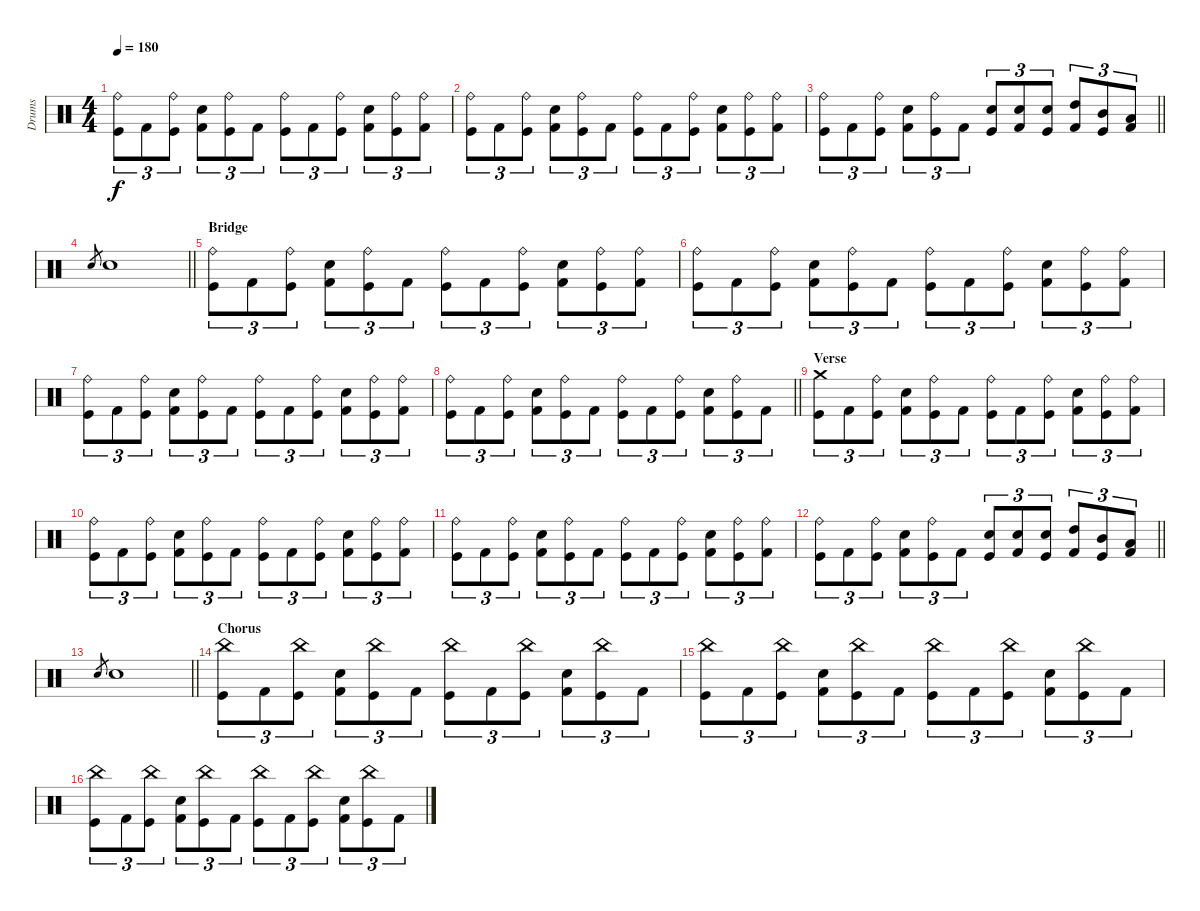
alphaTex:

\track ("Drums" "Drums") {instrument percussion}
\staff {score}
\articulation defaults
\ts (4 4)
\tempo 180
\clef neutral
\ks c
("Ride (bell)" "Kick (hit)").8{tu (3 2) dy f} "Kick (hit) 2".8{tu (3 2)} ("Ride (bell)" "Kick (hit)").8{tu (3 2)} ("Electric Snare (hit)" "Kick (hit) 2").8{tu (3 2)} ("Ride (bell)" "Kick (hit)").8{tu (3 2)} "Kick (hit) 2".8{tu (3 2)} ("Ride (bell)" "Kick (hit)").8{tu (3 2)} "Kick (hit) 2".8{tu (3 2)} ("Ride (bell)" "Kick (hit)").8{tu (3 2)} ("Electric Snare (hit)" "Kick (hit) 2").8{tu (3 2)} ("Ride (bell)" "Kick (hit)").8{tu (3 2)} ("Ride (bell)" "Kick (hit) 2").8{tu (3 2)} |
("Ride (bell)" "Kick (hit)").8{tu (3 2)} "Kick (hit) 2".8{tu (3 2)} ("Ride (bell)" "Kick (hit)").8{tu (3 2)} ("Electric Snare (hit)" "Kick (hit) 2").8{tu (3 2)} ("Ride (bell)" "Kick (hit)").8{tu (3 2)} "Kick (hit) 2".8{tu (3 2)} ("Ride (bell)" "Kick (hit)").8{tu (3 2)} "Kick (hit) 2".8{tu (3 2)} ("Ride (bell)" "Kick (hit)").8{tu (3 2)} ("Electric Snare (hit)" "Kick (hit) 2").8{tu (3 2)} ("Ride (bell)" "Kick (hit)").8{tu (3 2)} ("Ride (bell)" "Kick (hit) 2").8{tu (3 2)} |
\barLineRight lightlight
("Ride (bell)" "Kick (hit)").8{tu (3 2)} "Kick (hit) 2".8{tu (3 2)} ("Ride (bell)" "Kick (hit)").8{tu (3 2)} ("Electric Snare (hit)" "Kick (hit) 2").8{tu (3 2)} ("Ride (bell)" "Kick (hit)").8{tu (3 2)} "Kick (hit) 2".8{tu (3 2)} ("Electric Snare (hit)" "Kick (hit)").8{tu (3 2)} ("Electric Snare (hit)" "Kick (hit) 2").8{tu (3 2)} ("Electric Snare (hit)" "Kick (hit)").8{tu (3 2)} ("High Tom (hit)" "Kick (hit) 2").8{tu (3 2)} ("Mid Tom (hit)" "Kick (hit)").8{tu (3 2)} ("Low Tom (hit)" "Kick (hit) 2").8{tu (3 2)} |
\barLineRight lightlight "Electric Snare (hit)".8{gr} "Electric Snare (hit)".1
|
\section ("" "Bridge")
("Ride (bell)" "Kick (hit)").8{tu (3 2)} "Kick (hit) 2".8{tu (3 2)} ("Ride (bell)" "Kick (hit)").8{tu (3 2)} ("Electric Snare (hit)" "Kick (hit) 2").8{tu (3 2)} ("Ride (bell)" "Kick (hit)").8{tu (3 2)} "Kick (hit) 2".8{tu (3 2)} ("Ride (bell)" "Kick (hit)").8{tu (3 2)} "Kick (hit) 2".8{tu (3 2)} ("Ride (bell)" "Kick (hit)").8{tu (3 2)} ("Electric Snare (hit)" "Kick (hit) 2").8{tu (3 2)} ("Ride (bell)" "Kick (hit)").8{tu (3 2)} ("Ride (bell)" "Kick (hit) 2").8{tu (3 2)} |
("Ride (bell)" "Kick (hit)").8{tu (3 2)} "Kick (hit) 2".8{tu (3 2)} ("Ride (bell)" "Kick (hit)").8{tu (3 2)} ("Electric Snare (hit)" "Kick (hit) 2").8{tu (3 2)} ("Ride (bell)" "Kick (hit)").8{tu (3 2)} "Kick (hit) 2".8{tu (3 2)} ("Ride (bell)" "Kick (hit)").8{tu (3 2)} "Kick (hit) 2".8{tu (3 2)} ("Ride (bell)" "Kick (hit)").8{tu (3 2)} ("Electric Snare (hit)" "Kick (hit) 2").8{tu (3 2)} ("Ride (bell)" "Kick (hit)").8{tu (3 2)} ("Ride (bell)" "Kick (hit) 2").8{tu (3 2)} |
("Ride (bell)" "Kick (hit)").8{tu (3 2)} "Kick (hit) 2".8{tu (3 2)} ("Ride (bell)" "Kick (hit)").8{tu (3 2)} ("Electric Snare (hit)" "Kick (hit) 2").8{tu (3 2)} ("Ride (bell)" "Kick (hit)").8{tu (3 2)} "Kick (hit) 2".8{tu (3 2)} ("Ride (bell)" "Kick (hit)").8{tu (3 2)} "Kick (hit) 2".8{tu (3 2)} ("Ride (bell)" "Kick (hit)").8{tu (3 2)} ("Electric Snare (hit)" "Kick (hit) 2").8{tu (3 2)} ("Ride (bell)" "Kick (hit)").8{tu (3 2)} ("Ride (bell)" "Kick (hit) 2").8{tu (3 2)} |
\barLineRight lightlight
("Ride (bell)" "Kick (hit)").8{tu (3 2)} "Kick (hit) 2".8{tu (3 2)} ("Ride (bell)" "Kick (hit)").8{tu (3 2)} ("Electric Snare (hit)" "Kick (hit) 2").8{tu (3 2)} ("Ride (bell)" "Kick (hit)").8{tu (3 2)} "Kick (hit) 2".8{tu (3 2)} ("Ride (bell)" "Kick (hit)").8{tu (3 2)} "Kick (hit) 2".8{tu (3 2)} ("Ride (bell)" "Kick (hit)").8{tu (3 2)} ("Electric Snare (hit)" "Kick (hit) 2").8{tu (3 2)} ("Ride (bell)" "Kick (hit)").8{tu (3 2)} "Kick (hit) 2".8{tu (3 2)} |
\section ("" "Verse")
("Crash medium (hit)" "Kick (hit)").8{tu (3 2)} "Kick (hit) 2".8{tu (3 2)} ("Ride (bell)" "Kick (hit)").8{tu (3 2)} ("Electric Snare (hit)" "Kick (hit) 2").8{tu (3 2)} ("Ride (bell)" "Kick (hit)").8{tu (3 2)} "Kick (hit) 2".8{tu (3 2)} ("Ride (bell)" "Kick (hit)").8{tu (3 2)} "Kick (hit) 2".8{tu (3 2)} ("Ride (bell)" "Kick (hit)").8{tu (3 2)} ("Electric Snare (hit)" "Kick (hit) 2").8{tu (3 2)} ("Ride (bell)" "Kick (hit)").8{tu (3 2)} ("Ride (bell)" "Kick (hit) 2").8{tu (3 2)} |
("Ride (bell)" "Kick (hit)").8{tu (3 2)} "Kick (hit) 2".8{tu (3 2)} ("Ride (bell)" "Kick (hit)").8{tu (3 2)} ("Electric Snare (hit)" "Kick (hit) 2").8{tu (3 2)} ("Ride (bell)" "Kick (hit)").8{tu (3 2)} "Kick (hit) 2".8{tu (3 2)} ("Ride (bell)" "Kick (hit)").8{tu (3 2)} "Kick (hit) 2".8{tu (3 2)} ("Ride (bell)" "Kick (hit)").8{tu (3 2)} ("Electric Snare (hit)" "Kick (hit) 2").8{tu (3 2)} ("Ride (bell)" "Kick (hit)").8{tu (3 2)} ("Ride (bell)" "Kick (hit) 2").8{tu (3 2)} |
("Ride (bell)" "Kick (hit)").8{tu (3 2)} "Kick (hit) 2".8{tu (3 2)} ("Ride (bell)" "Kick (hit)").8{tu (3 2)} ("Electric Snare (hit)" "Kick (hit) 2").8{tu (3 2)} ("Ride (bell)" "Kick (hit)").8{tu (3 2)} "Kick (hit) 2".8{tu (3 2)} ("Ride (bell)" "Kick (hit)").8{tu (3 2)} "Kick (hit) 2".8{tu (3 2)} ("Ride (bell)" "Kick (hit)").8{tu (3 2)} ("Electric Snare (hit)" "Kick (hit) 2").8{tu (3 2)} ("Ride (bell)" "Kick (hit)").8{tu (3 2)} ("Ride (bell)" "Kick (hit) 2").8{tu (3 2)} |
\barLineRight lightlight
("Ride (bell)" "Kick (hit)").8{tu (3 2)} "Kick (hit) 2".8{tu (3 2)} ("Ride (bell)" "Kick (hit)").8{tu (3 2)} ("Electric Snare (hit)" "Kick (hit) 2").8{tu (3 2)} ("Ride (bell)" "Kick (hit)").8{tu (3 2)} "Kick (hit) 2".8{tu (3 2)} ("Electric Snare (hit)" "Kick (hit)").8{tu (3 2)} ("Electric Snare (hit)" "Kick (hit) 2").8{tu (3 2)} ("Electric Snare (hit)" "Kick (hit)").8{tu (3 2)} ("High Tom (hit)" "Kick (hit) 2").8{tu (3 2)} ("Mid Tom (hit)" "Kick (hit)").8{tu (3 2)} ("Low Tom (hit)" "Kick (hit) 2").8{tu (3 2)} |
\barLineRight lightlight "Electric Snare (hit)".8{gr} "Electric Snare (hit)".1
|
\section ("" "Chorus")
("China (hit)" "Kick (hit)").8{tu (3 2)} "Kick (hit) 2".8{tu (3 2)} ("China (hit)" "Kick (hit)").8{tu (3 2)} ("Electric Snare (hit)" "Kick (hit) 2").8{tu (3 2)} ("China (hit)" "Kick (hit)").8{tu (3 2)} "Kick (hit) 2".8{tu (3 2)} ("China (hit)" "Kick (hit)").8{tu (3 2)} "Kick (hit) 2".8{tu (3 2)} ("China (hit)" "Kick (hit)").8{tu (3 2)} ("Electric Snare (hit)" "Kick (hit) 2").8{tu (3 2)} ("China (hit)" "Kick (hit)").8{tu (3 2)} "Kick (hit) 2".8{tu (3 2)} |
("China (hit)" "Kick (hit)").8{tu (3 2)} "Kick (hit) 2".8{tu (3 2)} ("China (hit)" "Kick (hit)").8{tu (3 2)} ("Electric Snare (hit)" "Kick (hit) 2").8{tu (3 2)} ("China (hit)" "Kick (hit)").8{tu (3 2)} "Kick (hit) 2".8{tu (3 2)} ("China (hit)" "Kick (hit)").8{tu (3 2)} "Kick (hit) 2".8{tu (3 2)} ("China (hit)" "Kick (hit)").8{tu (3 2)} ("Electric Snare (hit)" "Kick (hit) 2").8{tu (3 2)} ("China (hit)" "Kick (hit)").8{tu (3 2)} "Kick (hit) 2".8{tu (3 2)} |
("China (hit)" "Kick (hit)").8{tu (3 2)} "Kick (hit) 2".8{tu (3 2)} ("China (hit)" "Kick (hit)").8{tu (3 2)} ("Electric Snare (hit)" "Kick (hit) 2").8{tu (3 2)} ("China (hit)" "Kick (hit)").8{tu (3 2)} "Kick (hit) 2".8{tu (3 2)} ("China (hit)" "Kick (hit)").8{tu (3 2)} "Kick (hit) 2".8{tu (3 2)} ("China (hit)" "Kick (hit)").8{tu (3 2)} ("Electric Snare (hit)" "Kick (hit) 2").8{tu (3 2)} ("China (hit)" "Kick (hit)").8{tu (3 2)} "Kick (hit) 2".8{tu (3 2)}
